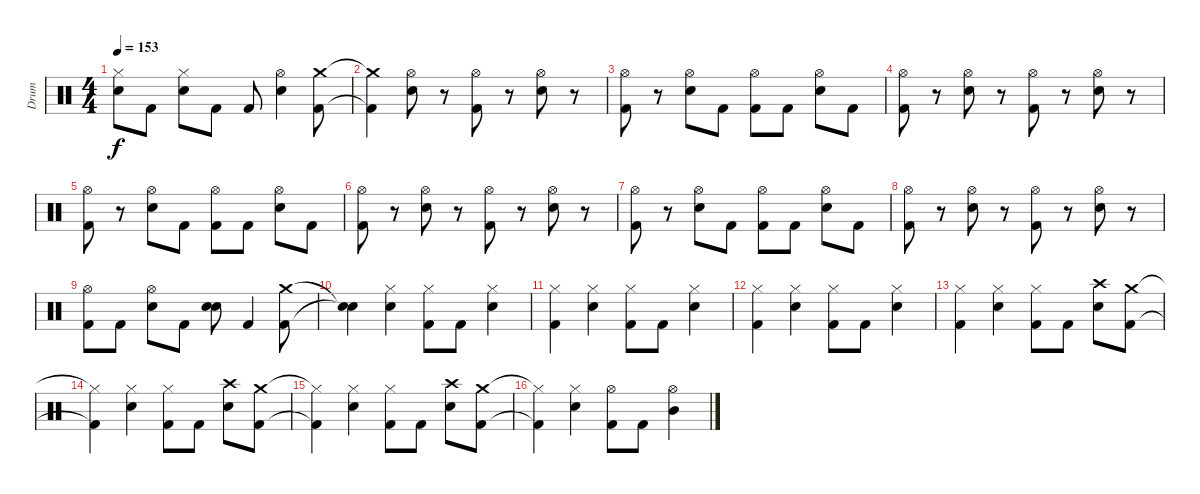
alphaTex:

\track ("Drum" "Drum") {instrument percussion}
\staff {score}
\articulation defaults
\ts (4 4)
\tempo 153
\clef neutral
\ks c
("Hi-Hat (closed)" "Snare (hit) 2").8{dy f} "Kick (hit) 2".8 ("Hi-Hat (closed)" "Snare (hit) 2").8 "Kick (hit) 2".8 "Kick (hit) 2".8 ("Hi-Hat (open)" "Snare (hit) 2").4 ("Crash medium (hit)" "Kick (hit) 2").8 |
("Crash medium (hit)"{t} "Kick (hit) 2"{t}).4 ("Hi-Hat (open)" "Snare (hit) 2").8 r.8 ("Hi-Hat (open)" "Kick (hit) 2").8 r.8 ("Hi-Hat (open)" "Snare (hit) 2").8 r.8 |
("Hi-Hat (open)" "Kick (hit) 2").8 r.8 ("Hi-Hat (open)" "Snare (hit) 2").8 "Kick (hit) 2".8 ("Hi-Hat (open)" "Kick (hit) 2").8 "Kick (hit) 2".8 ("Hi-Hat (open)" "Snare (hit) 2").8 "Kick (hit) 2".8 |
("Hi-Hat (open)" "Kick (hit) 2").8 r.8 ("Hi-Hat (open)" "Snare (hit) 2").8 r.8 ("Hi-Hat (open)" "Kick (hit) 2").8 r.8 ("Hi-Hat (open)" "Snare (hit) 2").8 r.8 |
("Hi-Hat (open)" "Kick (hit) 2").8 r.8 ("Hi-Hat (open)" "Snare (hit) 2").8 "Kick (hit) 2".8 ("Hi-Hat (open)" "Kick (hit) 2").8 "Kick (hit) 2".8 ("Hi-Hat (open)" "Snare (hit) 2").8 "Kick (hit) 2".8 |
("Hi-Hat (open)" "Kick (hit) 2").8 r.8 ("Hi-Hat (open)" "Snare (hit) 2").8 r.8 ("Hi-Hat (open)" "Kick (hit) 2").8 r.8 ("Hi-Hat (open)" "Snare (hit) 2").8 r.8 |
("Hi-Hat (open)" "Kick (hit) 2").8 r.8 ("Hi-Hat (open)" "Snare (hit) 2").8 "Kick (hit) 2".8 ("Hi-Hat (open)" "Kick (hit) 2").8 "Kick (hit) 2".8 ("Hi-Hat (open)" "Snare (hit) 2").8 "Kick (hit) 2".8 |
("Hi-Hat (open)" "Kick (hit) 2").8 r.8 ("Hi-Hat (open)" "Snare (hit) 2").8 r.8 ("Hi-Hat (open)" "Kick (hit) 2").8 r.8 ("Hi-Hat (open)" "Snare (hit) 2").8 r.8 |
("Hi-Hat (open)" "Kick (hit) 2").8 "Kick (hit) 2".8 ("Hi-Hat (open)" "Snare (hit) 2").8 "Kick (hit) 2".8 ("Snare (hit) 2" "Snare (hit) 2").8{bd 240} "Kick (hit) 2".4 ("Crash medium (hit)" "Kick (hit) 2").8 |
("Snare (hit)"{t} "Snare (hit)"{t}).4 ("Hi-Hat (closed)" "Snare (hit) 2").4 ("Hi-Hat (closed)" "Kick (hit) 2").8 "Kick (hit) 2".8 ("Hi-Hat (closed)" "Snare (hit) 2").4 |
("Hi-Hat (closed)" "Kick (hit) 2").4 ("Hi-Hat (closed)" "Snare (hit) 2").4 ("Hi-Hat (closed)" "Kick (hit) 2").8 "Kick (hit) 2".8 ("Hi-Hat (closed)" "Snare (hit) 2").4 |
("Hi-Hat (closed)" "Kick (hit) 2").4 ("Hi-Hat (closed)" "Snare (hit) 2").4 ("Hi-Hat (closed)" "Kick (hit) 2").8 "Kick (hit) 2".8 ("Hi-Hat (closed)" "Snare (hit) 2").4 |
("Hi-Hat (closed)" "Kick (hit) 2").4 ("Hi-Hat (closed)" "Snare (hit) 2").4 ("Hi-Hat (closed)" "Kick (hit) 2").8 "Kick (hit) 2".8 ("Crash high (hit)" "Snare (hit) 2").8 ("Crash medium (hit)" "Kick (hit) 2").8 |
("Hi-Hat (closed)"{t} "Kick (hit) 2"{t}).4 ("Hi-Hat (closed)" "Snare (hit) 2").4 ("Hi-Hat (closed)" "Kick (hit) 2").8 "Kick (hit) 2".8 ("Crash high (hit)" "Snare (hit) 2").8 ("Crash medium (hit)" "Kick (hit) 2").8 |
("Hi-Hat (closed)"{t} "Kick (hit) 2"{t}).4 ("Hi-Hat (closed)" "Snare (hit) 2").4 ("Hi-Hat (closed)" "Kick (hit) 2").8 "Kick (hit) 2".8 ("Crash high (hit)" "Snare (hit) 2").8 ("Crash medium (hit)" "Kick (hit) 2").8 |
("Hi-Hat (closed)"{t} "Kick (hit) 2"{t}).4 ("Hi-Hat (closed)" "Snare (hit) 2").4 ("Hi-Hat (open)" "Kick (hit) 2").8 "Kick (hit) 2".8 ("Hi-Hat (open)" "Mid Tom (hit)").4
